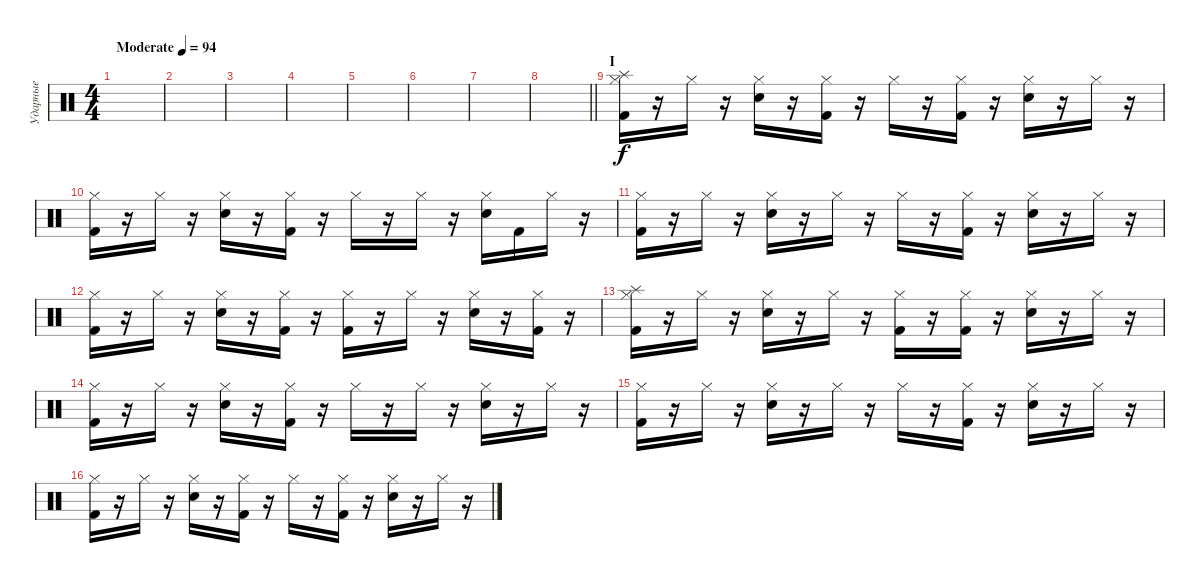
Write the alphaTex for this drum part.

\track ("Ударные" "Ударные") {instrument percussion}
\staff {score}
\articulation defaults
\ts (4 4)
\tempo (94 "Moderate")
\clef neutral
\ks c
|
|
|
|
|
|
|
\barLineRight lightlight
|
\section ("" "I")
("Hi-Hat (closed)" "Splash (hit)" "Kick (hit) 2").16 r.16 "Hi-Hat (closed)".16 r.16 ("Hi-Hat (closed)" "Electric Snare (hit)").16 r.16 ("Hi-Hat (closed)" "Kick (hit) 2").16 r.16 "Hi-Hat (closed)".16 r.16 ("Hi-Hat (closed)" "Kick (hit) 2").16 r.16 ("Hi-Hat (closed)" "Electric Snare (hit)").16 r.16 "Hi-Hat (closed)".16 r.16 |
("Hi-Hat (closed)" "Kick (hit) 2").16 r.16 "Hi-Hat (closed)".16 r.16 ("Hi-Hat (closed)" "Electric Snare (hit)").16 r.16 ("Hi-Hat (closed)" "Kick (hit) 2").16 r.16 "Hi-Hat (closed)".16 r.16 "Hi-Hat (closed)".16 r.16 ("Hi-Hat (closed)" "Electric Snare (hit)").16 "Kick (hit) 2".16 "Hi-Hat (closed)".16 r.16 |
("Hi-Hat (closed)" "Kick (hit) 2").16 r.16 "Hi-Hat (closed)".16 r.16 ("Hi-Hat (closed)" "Electric Snare (hit)").16 r.16 "Hi-Hat (closed)".16 r.16 "Hi-Hat (closed)".16 r.16 ("Hi-Hat (closed)" "Kick (hit) 2").16 r.16 ("Hi-Hat (closed)" "Electric Snare (hit)").16 r.16 "Hi-Hat (closed)".16 r.16 |
("Hi-Hat (closed)" "Kick (hit) 2").16 r.16 "Hi-Hat (closed)".16 r.16 ("Hi-Hat (closed)" "Electric Snare (hit)").16 r.16 ("Hi-Hat (closed)" "Kick (hit) 2").16 r.16 ("Hi-Hat (closed)" "Kick (hit) 2").16 r.16 "Hi-Hat (closed)".16 r.16 ("Hi-Hat (closed)" "Electric Snare (hit)").16 r.16 ("Hi-Hat (closed)" "Kick (hit) 2").16 r.16 |
("Hi-Hat (closed)" "Splash (hit)" "Kick (hit) 2").16 r.16 "Hi-Hat (closed)".16 r.16 ("Hi-Hat (closed)" "Electric Snare (hit)").16 r.16 "Hi-Hat (closed)".16 r.16 ("Hi-Hat (closed)" "Kick (hit) 2").16 r.16 ("Hi-Hat (closed)" "Kick (hit) 2").16 r.16 ("Hi-Hat (closed)" "Electric Snare (hit)").16 r.16 "Hi-Hat (closed)".16 r.16 |
("Hi-Hat (closed)" "Kick (hit) 2").16 r.16 "Hi-Hat (closed)".16 r.16 ("Hi-Hat (closed)" "Electric Snare (hit)").16 r.16 ("Hi-Hat (closed)" "Kick (hit) 2").16 r.16 "Hi-Hat (closed)".16 r.16 "Hi-Hat (closed)".16 r.16 ("Hi-Hat (closed)" "Electric Snare (hit)").16 r.16 "Hi-Hat (closed)".16 r.16 |
("Hi-Hat (closed)" "Kick (hit) 2").16 r.16 "Hi-Hat (closed)".16 r.16 ("Hi-Hat (closed)" "Electric Snare (hit)").16 r.16 "Hi-Hat (closed)".16 r.16 "Hi-Hat (closed)".16 r.16 ("Hi-Hat (closed)" "Kick (hit) 2").16 r.16 ("Hi-Hat (closed)" "Electric Snare (hit)").16 r.16 "Hi-Hat (closed)".16 r.16 |
("Hi-Hat (closed)" "Kick (hit) 2").16 r.16 "Hi-Hat (closed)".16 r.16 ("Hi-Hat (closed)" "Electric Snare (hit)").16 r.16 ("Hi-Hat (closed)" "Kick (hit) 2").16 r.16 "Hi-Hat (closed)".16 r.16 ("Hi-Hat (closed)" "Kick (hit) 2").16 r.16 ("Hi-Hat (closed)" "Electric Snare (hit)").16 r.16 "Hi-Hat (closed)".16 r.16
